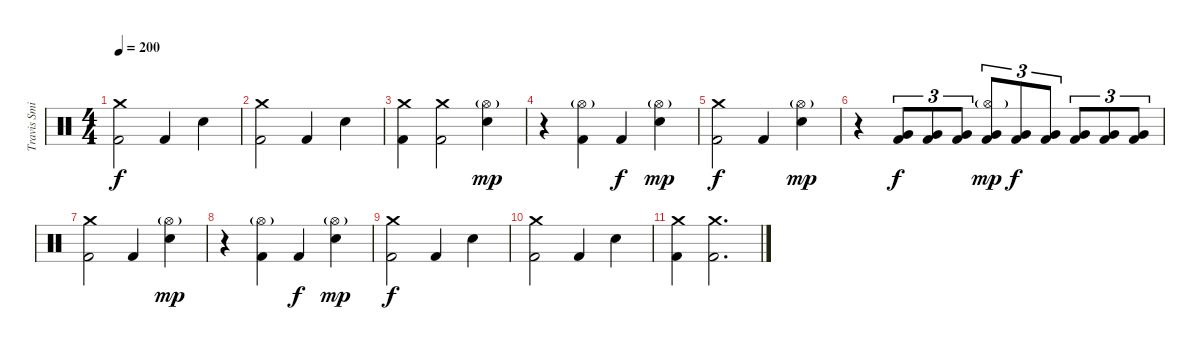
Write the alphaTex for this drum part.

\track ("Travis Smith" "Travis Smi") {instrument percussion}
\staff {score}
\articulation defaults
\ts (4 4)
\tempo 200
\clef neutral
\ks c
("Crash medium (hit)" "Kick (hit) 2").2{dy f} "Kick (hit) 2".4 "Electric Snare (hit)".4 |
("Crash medium (hit)" "Kick (hit) 2").2 "Kick (hit) 2".4 "Electric Snare (hit)".4 |
("Crash medium (hit)" "Kick (hit) 2").4 ("Crash medium (hit)" "Kick (hit) 2").2 ("Hi-Hat (open)"{g} "Electric Snare (hit)").4{dy mp} |
r.4 ("Hi-Hat (open)"{g} "Kick (hit) 2").4 "Kick (hit) 2".4{dy f} ("Hi-Hat (open)"{g} "Electric Snare (hit)").4{dy mp} |
("Crash medium (hit)" "Kick (hit) 2").2{dy f} "Kick (hit) 2".4 ("Hi-Hat (open)"{g} "Electric Snare (hit)").4{dy mp} |
r.4 ("Very Low Tom (hit)" "Kick (hit) 2").8{tu (3 2) dy f} ("Very Low Tom (hit)" "Kick (hit) 2").8{tu (3 2)} ("Very Low Tom (hit)" "Kick (hit) 2").8{tu (3 2)} ("Hi-Hat (open)"{g} "Very Low Tom (hit)" "Kick (hit) 2").8{tu (3 2) dy mp} ("Very Low Tom (hit)" "Kick (hit) 2").8{tu (3 2) dy f} ("Very Low Tom (hit)" "Kick (hit) 2").8{tu (3 2)} ("Very Low Tom (hit)" "Kick (hit) 2").8{tu (3 2)} ("Very Low Tom (hit)" "Kick (hit) 2").8{tu (3 2)} ("Very Low Tom (hit)" "Kick (hit) 2").8{tu (3 2)} |
("Crash medium (hit)" "Kick (hit) 2").2 "Kick (hit) 2".4 ("Hi-Hat (open)"{g} "Electric Snare (hit)").4{dy mp} |
r.4 ("Hi-Hat (open)"{g} "Kick (hit) 2").4 "Kick (hit) 2".4{dy f} ("Hi-Hat (open)"{g} "Electric Snare (hit)").4{dy mp} |
("Crash medium (hit)" "Kick (hit) 2").2{dy f} "Kick (hit) 2".4 "Electric Snare (hit)".4 |
("Crash medium (hit)" "Kick (hit) 2").2 "Kick (hit) 2".4 "Electric Snare (hit)".4 |
("Crash medium (hit)" "Kick (hit) 2").4 ("Crash medium (hit)" "Kick (hit) 2").2{d}
